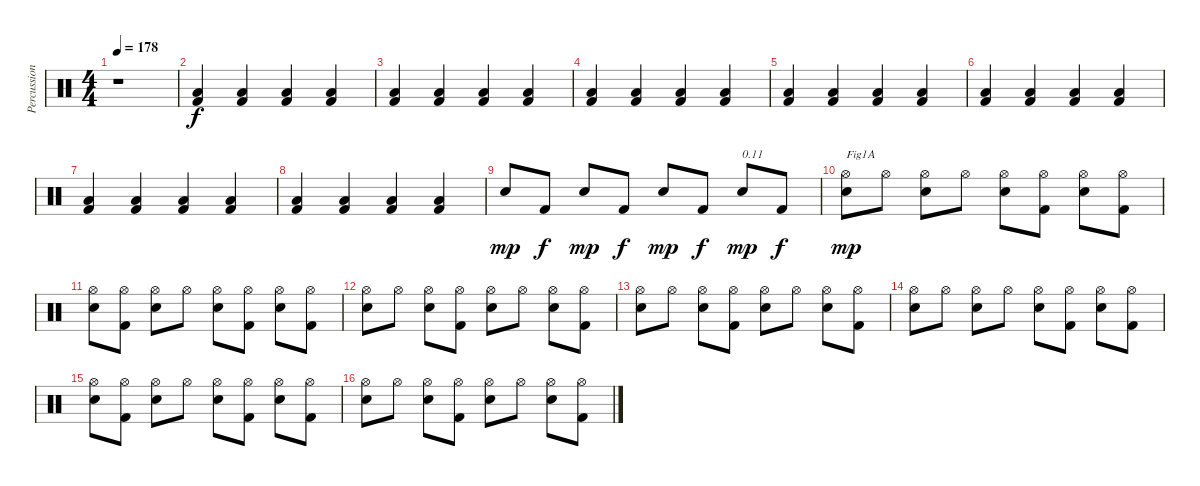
\track ("Percussions" "Percussion") {instrument percussion}
\staff {score}
\articulation defaults
\ts (4 4)
\tempo 178
\clef neutral
\ks c
r.1{dy f} |
("Kick (hit) 2" "Low Floor Tom (hit)").4 ("Kick (hit) 2" "Low Floor Tom (hit)").4 ("Kick (hit) 2" "Low Floor Tom (hit)").4 ("Kick (hit) 2" "Low Floor Tom (hit)").4 |
("Kick (hit) 2" "Low Floor Tom (hit)").4 ("Kick (hit) 2" "Low Floor Tom (hit)").4 ("Kick (hit) 2" "Low Floor Tom (hit)").4 ("Kick (hit) 2" "Low Floor Tom (hit)").4 |
("Kick (hit) 2" "Low Floor Tom (hit)").4 ("Kick (hit) 2" "Low Floor Tom (hit)").4 ("Kick (hit) 2" "Low Floor Tom (hit)").4 ("Kick (hit) 2" "Low Floor Tom (hit)").4 |
("Kick (hit) 2" "Low Floor Tom (hit)").4 ("Kick (hit) 2" "Low Floor Tom (hit)").4 ("Kick (hit) 2" "Low Floor Tom (hit)").4 ("Kick (hit) 2" "Low Floor Tom (hit)").4 |
("Kick (hit) 2" "Low Floor Tom (hit)").4 ("Kick (hit) 2" "Low Floor Tom (hit)").4 ("Kick (hit) 2" "Low Floor Tom (hit)").4 ("Kick (hit) 2" "Low Floor Tom (hit)").4 |
("Kick (hit) 2" "Low Floor Tom (hit)").4 ("Kick (hit) 2" "Low Floor Tom (hit)").4 ("Kick (hit) 2" "Low Floor Tom (hit)").4 ("Kick (hit) 2" "Low Floor Tom (hit)").4 |
("Kick (hit) 2" "Low Floor Tom (hit)").4 ("Kick (hit) 2" "Low Floor Tom (hit)").4 ("Kick (hit) 2" "Low Floor Tom (hit)").4 ("Kick (hit) 2" "Low Floor Tom (hit)").4 |
"Electric Snare (hit)".8{dy mp} "Kick (hit) 2".8{dy f} "Electric Snare (hit)".8{dy mp} "Kick (hit) 2".8{dy f} "Electric Snare (hit)".8{dy mp} "Kick (hit) 2".8{dy f} "Electric Snare (hit)".8{txt "0.11" dy mp} "Kick (hit) 2".8{dy f} |
("Electric Snare (hit)" "Hi-Hat (open)").8{txt "Fig1A" dy mp} "Hi-Hat (open)".8 ("Electric Snare (hit)" "Hi-Hat (open)").8 "Hi-Hat (open)".8 ("Electric Snare (hit)" "Hi-Hat (open)").8 ("Kick (hit) 2" "Hi-Hat (open)").8 ("Electric Snare (hit)" "Hi-Hat (open)").8 ("Kick (hit) 2" "Hi-Hat (open)").8 |
("Electric Snare (hit)" "Hi-Hat (open)").8 ("Kick (hit) 2" "Hi-Hat (open)").8 ("Electric Snare (hit)" "Hi-Hat (open)").8 "Hi-Hat (open)".8 ("Electric Snare (hit)" "Hi-Hat (open)").8 ("Kick (hit) 2" "Hi-Hat (open)").8 ("Electric Snare (hit)" "Hi-Hat (open)").8 ("Kick (hit) 2" "Hi-Hat (open)").8 |
("Electric Snare (hit)" "Hi-Hat (open)").8 "Hi-Hat (open)".8 ("Electric Snare (hit)" "Hi-Hat (open)").8 ("Kick (hit) 2" "Hi-Hat (open)").8 ("Electric Snare (hit)" "Hi-Hat (open)").8 "Hi-Hat (open)".8 ("Electric Snare (hit)" "Hi-Hat (open)").8 ("Kick (hit) 2" "Hi-Hat (open)").8 |
("Electric Snare (hit)" "Hi-Hat (open)").8 "Hi-Hat (open)".8 ("Electric Snare (hit)" "Hi-Hat (open)").8 ("Kick (hit) 2" "Hi-Hat (open)").8 ("Electric Snare (hit)" "Hi-Hat (open)").8 "Hi-Hat (open)".8 ("Electric Snare (hit)" "Hi-Hat (open)").8 ("Kick (hit) 2" "Hi-Hat (open)").8 |
("Electric Snare (hit)" "Hi-Hat (open)").8 "Hi-Hat (open)".8 ("Electric Snare (hit)" "Hi-Hat (open)").8 "Hi-Hat (open)".8 ("Electric Snare (hit)" "Hi-Hat (open)").8 ("Kick (hit) 2" "Hi-Hat (open)").8 ("Electric Snare (hit)" "Hi-Hat (open)").8 ("Kick (hit) 2" "Hi-Hat (open)").8 |
("Electric Snare (hit)" "Hi-Hat (open)").8 ("Kick (hit) 2" "Hi-Hat (open)").8 ("Electric Snare (hit)" "Hi-Hat (open)").8 "Hi-Hat (open)".8 ("Electric Snare (hit)" "Hi-Hat (open)").8 ("Kick (hit) 2" "Hi-Hat (open)").8 ("Electric Snare (hit)" "Hi-Hat (open)").8 ("Kick (hit) 2" "Hi-Hat (open)").8 |
("Electric Snare (hit)" "Hi-Hat (open)").8 "Hi-Hat (open)".8 ("Electric Snare (hit)" "Hi-Hat (open)").8 ("Kick (hit) 2" "Hi-Hat (open)").8 ("Electric Snare (hit)" "Hi-Hat (open)").8 "Hi-Hat (open)".8 ("Electric Snare (hit)" "Hi-Hat (open)").8 ("Kick (hit) 2" "Hi-Hat (open)").8
